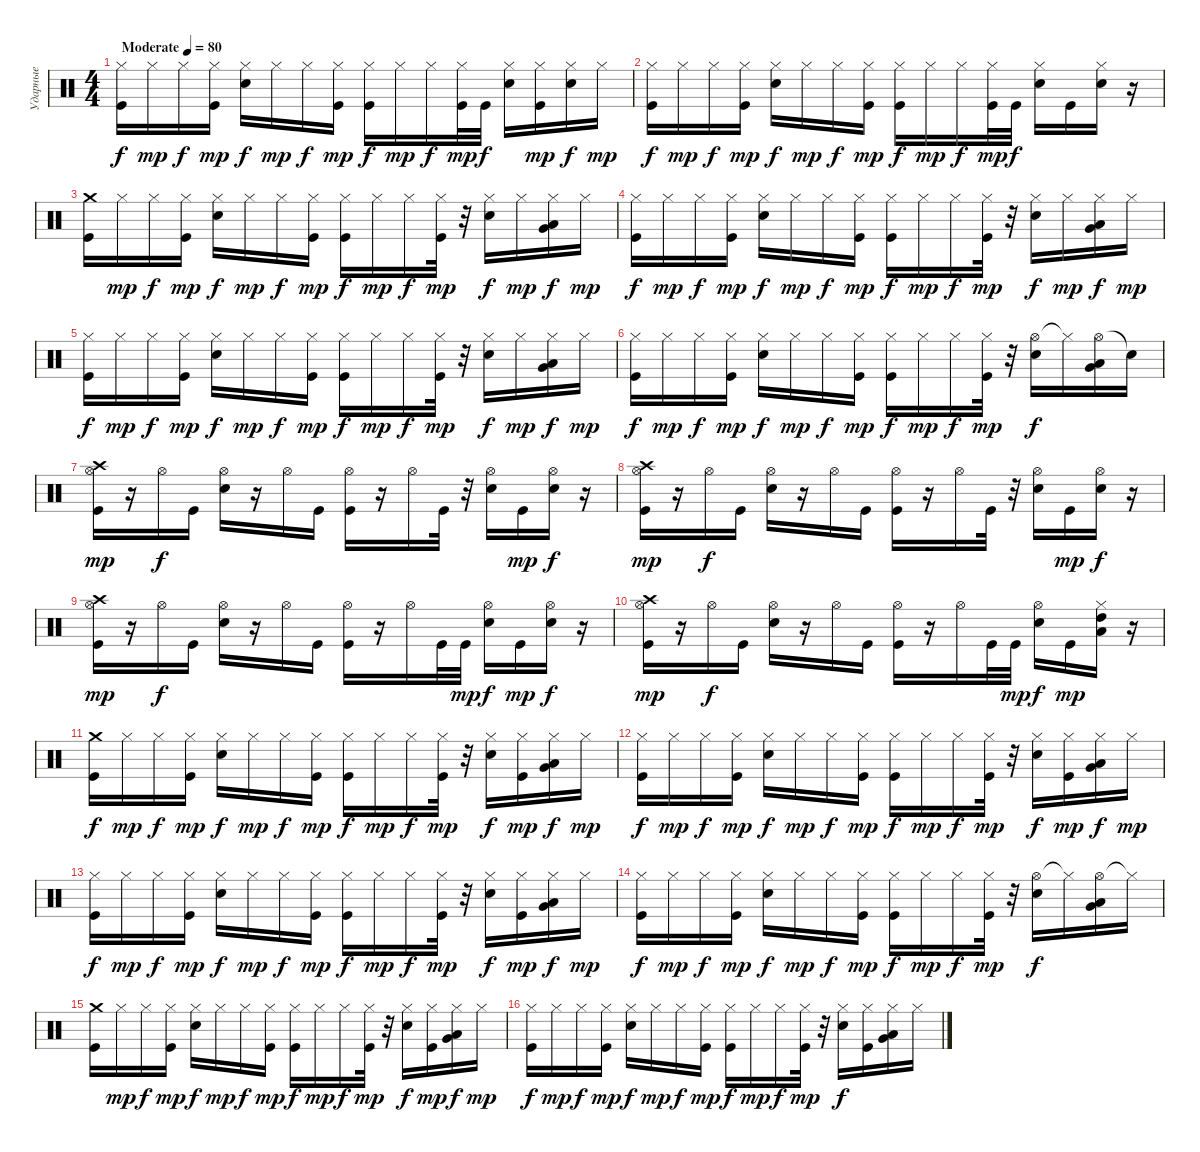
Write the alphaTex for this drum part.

\track ("Ударные" "Ударные") {instrument percussion}
\staff {score}
\articulation defaults
\ts (4 4)
\tempo (80 "Moderate")
\clef neutral
\ks c
("Hi-Hat (closed)" "Kick (hit)").16{dy f} "Hi-Hat (closed)".16{dy mp} "Hi-Hat (closed)".16{dy f} ("Hi-Hat (closed)" "Kick (hit)").16{dy mp} ("Hi-Hat (closed)" "Electric Snare (hit)").16{dy f} "Hi-Hat (closed)".16{dy mp} "Hi-Hat (closed)".16{dy f} ("Hi-Hat (closed)" "Kick (hit)").16{dy mp} ("Hi-Hat (closed)" "Kick (hit)").16{dy f} "Hi-Hat (closed)".16{dy mp} "Hi-Hat (closed)".16{dy f} ("Hi-Hat (closed)" "Kick (hit)").32{dy mp} "Kick (hit)".32{dy f} ("Hi-Hat (closed)" "Electric Snare (hit)").16 ("Hi-Hat (closed)" "Kick (hit)").16{dy mp} ("Hi-Hat (closed)" "Electric Snare (hit)").16{dy f} "Hi-Hat (closed)".16{dy mp} |
("Hi-Hat (closed)" "Kick (hit)").16{dy f} "Hi-Hat (closed)".16{dy mp} "Hi-Hat (closed)".16{dy f} ("Hi-Hat (closed)" "Kick (hit)").16{dy mp} ("Hi-Hat (closed)" "Electric Snare (hit)").16{dy f} "Hi-Hat (closed)".16{dy mp} "Hi-Hat (closed)".16{dy f} ("Hi-Hat (closed)" "Kick (hit)").16{dy mp} ("Hi-Hat (closed)" "Kick (hit)").16{dy f} "Hi-Hat (closed)".16{dy mp} "Hi-Hat (closed)".16{dy f} ("Hi-Hat (closed)" "Kick (hit)").32{dy mp} "Kick (hit)".32{dy f} ("Hi-Hat (closed)" "Electric Snare (hit)").16 "Kick (hit)".16 ("Hi-Hat (closed)" "Electric Snare (hit)").16 r.16 |
("Crash medium (hit)" "Kick (hit)").16 "Hi-Hat (closed)".16{dy mp} "Hi-Hat (closed)".16{dy f} ("Hi-Hat (closed)" "Kick (hit)").16{dy mp} ("Hi-Hat (closed)" "Electric Snare (hit)").16{dy f} "Hi-Hat (closed)".16{dy mp} "Hi-Hat (closed)".16{dy f} ("Hi-Hat (closed)" "Kick (hit)").16{dy mp} ("Hi-Hat (closed)" "Kick (hit)").16{dy f} "Hi-Hat (closed)".16{dy mp} "Hi-Hat (closed)".16{dy f} ("Hi-Hat (closed)" "Kick (hit)").32{dy mp} r.32 ("Hi-Hat (closed)" "Electric Snare (hit)").16{dy f} "Hi-Hat (closed)".16{dy mp} ("Hi-Hat (closed)" "Low Floor Tom (hit)" "Very Low Tom (hit)").16{dy f} "Hi-Hat (closed)".16{dy mp} |
("Hi-Hat (closed)" "Kick (hit)").16{dy f} "Hi-Hat (closed)".16{dy mp} "Hi-Hat (closed)".16{dy f} ("Hi-Hat (closed)" "Kick (hit)").16{dy mp} ("Hi-Hat (closed)" "Electric Snare (hit)").16{dy f} "Hi-Hat (closed)".16{dy mp} "Hi-Hat (closed)".16{dy f} ("Hi-Hat (closed)" "Kick (hit)").16{dy mp} ("Hi-Hat (closed)" "Kick (hit)").16{dy f} "Hi-Hat (closed)".16{dy mp} "Hi-Hat (closed)".16{dy f} ("Hi-Hat (closed)" "Kick (hit)").32{dy mp} r.32 ("Hi-Hat (closed)" "Electric Snare (hit)").16{dy f} "Hi-Hat (closed)".16{dy mp} ("Hi-Hat (closed)" "Low Floor Tom (hit)" "Very Low Tom (hit)").16{dy f} "Hi-Hat (closed)".16{dy mp} |
("Hi-Hat (closed)" "Kick (hit)").16{dy f} "Hi-Hat (closed)".16{dy mp} "Hi-Hat (closed)".16{dy f} ("Hi-Hat (closed)" "Kick (hit)").16{dy mp} ("Hi-Hat (closed)" "Electric Snare (hit)").16{dy f} "Hi-Hat (closed)".16{dy mp} "Hi-Hat (closed)".16{dy f} ("Hi-Hat (closed)" "Kick (hit)").16{dy mp} ("Hi-Hat (closed)" "Kick (hit)").16{dy f} "Hi-Hat (closed)".16{dy mp} "Hi-Hat (closed)".16{dy f} ("Hi-Hat (closed)" "Kick (hit)").32{dy mp} r.32 ("Hi-Hat (closed)" "Electric Snare (hit)").16{dy f} "Hi-Hat (closed)".16{dy mp} ("Hi-Hat (closed)" "Low Floor Tom (hit)" "Very Low Tom (hit)").16{dy f} "Hi-Hat (closed)".16{dy mp} |
("Hi-Hat (closed)" "Kick (hit)").16{dy f} "Hi-Hat (closed)".16{dy mp} "Hi-Hat (closed)".16{dy f} ("Hi-Hat (closed)" "Kick (hit)").16{dy mp} ("Hi-Hat (closed)" "Electric Snare (hit)").16{dy f} "Hi-Hat (closed)".16{dy mp} "Hi-Hat (closed)".16{dy f} ("Hi-Hat (closed)" "Kick (hit)").16{dy mp} ("Hi-Hat (closed)" "Kick (hit)").16{dy f} "Hi-Hat (closed)".16{dy mp} "Hi-Hat (closed)".16{dy f} ("Hi-Hat (closed)" "Kick (hit)").32{dy mp} r.32 ("Hi-Hat (open)" "Electric Snare (hit)").16{dy f} "Hi-Hat (closed)"{t}.16 ("Hi-Hat (open)" "Low Floor Tom (hit)" "Very Low Tom (hit)").16 "Snare (hit)"{t}.16 |
("Crash high (hit)" "Hi-Hat (open)" "Kick (hit)").16{dy mp} r.16 "Hi-Hat (open)".16{dy f} "Kick (hit)".16 ("Hi-Hat (open)" "Electric Snare (hit)").16 r.16 "Hi-Hat (open)".16 "Kick (hit)".16 ("Hi-Hat (open)" "Kick (hit)").16 r.16 "Hi-Hat (open)".16 "Kick (hit)".32 r.32 ("Hi-Hat (open)" "Electric Snare (hit)").16 "Kick (hit)".16{dy mp} ("Hi-Hat (open)" "Electric Snare (hit)").16{dy f} r.16 |
("Crash high (hit)" "Hi-Hat (open)" "Kick (hit)").16{dy mp} r.16 "Hi-Hat (open)".16{dy f} "Kick (hit)".16 ("Hi-Hat (open)" "Electric Snare (hit)").16 r.16 "Hi-Hat (open)".16 "Kick (hit)".16 ("Hi-Hat (open)" "Kick (hit)").16 r.16 "Hi-Hat (open)".16 "Kick (hit)".32 r.32 ("Hi-Hat (open)" "Electric Snare (hit)").16 "Kick (hit)".16{dy mp} ("Hi-Hat (open)" "Electric Snare (hit)").16{dy f} r.16 |
("Crash high (hit)" "Hi-Hat (open)" "Kick (hit)").16{dy mp} r.16 "Hi-Hat (open)".16{dy f} "Kick (hit)".16 ("Hi-Hat (open)" "Electric Snare (hit)").16 r.16 "Hi-Hat (open)".16 "Kick (hit)".16 ("Hi-Hat (open)" "Kick (hit)").16 r.16 "Hi-Hat (open)".16 "Kick (hit)".32 "Kick (hit)".32{dy mp} ("Hi-Hat (open)" "Electric Snare (hit)").16{dy f} "Kick (hit)".16{dy mp} ("Hi-Hat (open)" "Electric Snare (hit)").16{dy f} r.16 |
("Crash high (hit)" "Hi-Hat (open)" "Kick (hit)").16{dy mp} r.16 "Hi-Hat (open)".16{dy f} "Kick (hit)".16 ("Hi-Hat (open)" "Electric Snare (hit)").16 r.16 "Hi-Hat (open)".16 "Kick (hit)".16 ("Hi-Hat (open)" "Kick (hit)").16 r.16 "Hi-Hat (open)".16 "Kick (hit)".32 "Kick (hit)".32{dy mp} ("Hi-Hat (open)" "Electric Snare (hit)").16{dy f} "Kick (hit)".16{dy mp} ("Hi-Hat (closed)" "High Tom (hit)" "Low Floor Tom (hit)").16 r.16 |
("Crash medium (hit)" "Kick (hit)").16{dy f} "Hi-Hat (closed)".16{dy mp} "Hi-Hat (closed)".16{dy f} ("Hi-Hat (closed)" "Kick (hit)").16{dy mp} ("Hi-Hat (closed)" "Electric Snare (hit)").16{dy f} "Hi-Hat (closed)".16{dy mp} "Hi-Hat (closed)".16{dy f} ("Hi-Hat (closed)" "Kick (hit)").16{dy mp} ("Hi-Hat (closed)" "Kick (hit)").16{dy f} "Hi-Hat (closed)".16{dy mp} "Hi-Hat (closed)".16{dy f} ("Hi-Hat (closed)" "Kick (hit)").32{dy mp} r.32 ("Hi-Hat (closed)" "Electric Snare (hit)").16{dy f} ("Hi-Hat (closed)" "Kick (hit)").16{dy mp} ("Hi-Hat (closed)" "Low Floor Tom (hit)" "Very Low Tom (hit)").16{dy f} "Hi-Hat (closed)".16{dy mp} |
("Hi-Hat (closed)" "Kick (hit)").16{dy f} "Hi-Hat (closed)".16{dy mp} "Hi-Hat (closed)".16{dy f} ("Hi-Hat (closed)" "Kick (hit)").16{dy mp} ("Hi-Hat (closed)" "Electric Snare (hit)").16{dy f} "Hi-Hat (closed)".16{dy mp} "Hi-Hat (closed)".16{dy f} ("Hi-Hat (closed)" "Kick (hit)").16{dy mp} ("Hi-Hat (closed)" "Kick (hit)").16{dy f} "Hi-Hat (closed)".16{dy mp} "Hi-Hat (closed)".16{dy f} ("Hi-Hat (closed)" "Kick (hit)").32{dy mp} r.32 ("Hi-Hat (closed)" "Electric Snare (hit)").16{dy f} ("Hi-Hat (closed)" "Kick (hit)").16{dy mp} ("Hi-Hat (closed)" "Low Floor Tom (hit)" "Very Low Tom (hit)").16{dy f} "Hi-Hat (closed)".16{dy mp} |
("Hi-Hat (closed)" "Kick (hit)").16{dy f} "Hi-Hat (closed)".16{dy mp} "Hi-Hat (closed)".16{dy f} ("Hi-Hat (closed)" "Kick (hit)").16{dy mp} ("Hi-Hat (closed)" "Electric Snare (hit)").16{dy f} "Hi-Hat (closed)".16{dy mp} "Hi-Hat (closed)".16{dy f} ("Hi-Hat (closed)" "Kick (hit)").16{dy mp} ("Hi-Hat (closed)" "Kick (hit)").16{dy f} "Hi-Hat (closed)".16{dy mp} "Hi-Hat (closed)".16{dy f} ("Hi-Hat (closed)" "Kick (hit)").32{dy mp} r.32 ("Hi-Hat (closed)" "Electric Snare (hit)").16{dy f} ("Hi-Hat (closed)" "Kick (hit)").16{dy mp} ("Hi-Hat (closed)" "Low Floor Tom (hit)" "Very Low Tom (hit)").16{dy f} "Hi-Hat (closed)".16{dy mp} |
("Hi-Hat (closed)" "Kick (hit)").16{dy f} "Hi-Hat (closed)".16{dy mp} "Hi-Hat (closed)".16{dy f} ("Hi-Hat (closed)" "Kick (hit)").16{dy mp} ("Hi-Hat (closed)" "Electric Snare (hit)").16{dy f} "Hi-Hat (closed)".16{dy mp} "Hi-Hat (closed)".16{dy f} ("Hi-Hat (closed)" "Kick (hit)").16{dy mp} ("Hi-Hat (closed)" "Kick (hit)").16{dy f} "Hi-Hat (closed)".16{dy mp} "Hi-Hat (closed)".16{dy f} ("Hi-Hat (closed)" "Kick (hit)").32{dy mp} r.32 ("Hi-Hat (open)" "Electric Snare (hit)").16{dy f} "Hi-Hat (closed)"{t}.16 ("Hi-Hat (open)" "Low Floor Tom (hit)" "Very Low Tom (hit)").16 "Hi-Hat (closed)"{t}.16 |
("Crash medium (hit)" "Kick (hit)").16 "Hi-Hat (closed)".16{dy mp} "Hi-Hat (closed)".16{dy f} ("Hi-Hat (closed)" "Kick (hit)").16{dy mp} ("Hi-Hat (closed)" "Electric Snare (hit)").16{dy f} "Hi-Hat (closed)".16{dy mp} "Hi-Hat (closed)".16{dy f} ("Hi-Hat (closed)" "Kick (hit)").16{dy mp} ("Hi-Hat (closed)" "Kick (hit)").16{dy f} "Hi-Hat (closed)".16{dy mp} "Hi-Hat (closed)".16{dy f} ("Hi-Hat (closed)" "Kick (hit)").32{dy mp} r.32 ("Hi-Hat (closed)" "Electric Snare (hit)").16{dy f} ("Hi-Hat (closed)" "Kick (hit)").16{dy mp} ("Hi-Hat (closed)" "Low Floor Tom (hit)" "Very Low Tom (hit)").16{dy f} "Hi-Hat (closed)".16{dy mp} |
("Hi-Hat (closed)" "Kick (hit)").16{dy f} "Hi-Hat (closed)".16{dy mp} "Hi-Hat (closed)".16{dy f} ("Hi-Hat (closed)" "Kick (hit)").16{dy mp} ("Hi-Hat (closed)" "Electric Snare (hit)").16{dy f} "Hi-Hat (closed)".16{dy mp} "Hi-Hat (closed)".16{dy f} ("Hi-Hat (closed)" "Kick (hit)").16{dy mp} ("Hi-Hat (closed)" "Kick (hit)").16{dy f} "Hi-Hat (closed)".16{dy mp} "Hi-Hat (closed)".16{dy f} ("Hi-Hat (closed)" "Kick (hit)").32{dy mp} r.32 ("Hi-Hat (closed)" "Electric Snare (hit)").16{dy f} ("Hi-Hat (closed)" "Kick (hit)").16 ("Hi-Hat (closed)" "Low Floor Tom (hit)" "Very Low Tom (hit)").16 "Hi-Hat (closed)".16
